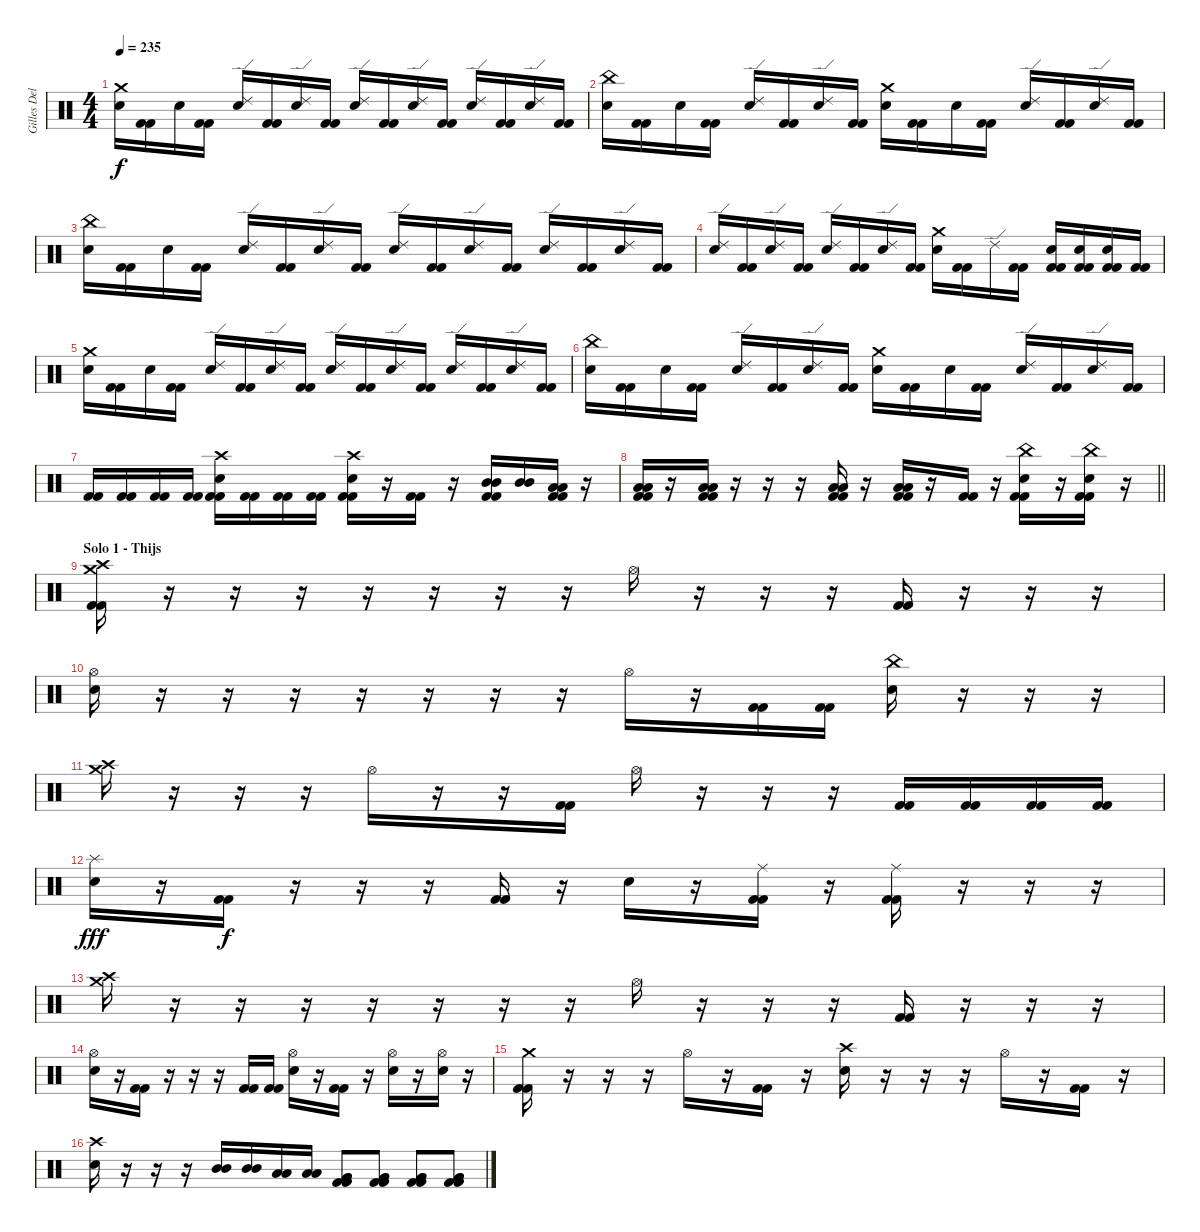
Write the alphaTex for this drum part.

\track ("Gilles Delecroix" "Gilles Del") {instrument percussion}
\staff {score}
\articulation defaults
\ts (4 4)
\tempo 235
\clef neutral
\ks c
("Crash medium (hit)" "Electric Snare (hit)").16{dy f} ("Kick (hit) 2" "Kick (hit) 2").16 "Electric Snare (hit)".16 ("Kick (hit) 2" "Kick (hit) 2").16 ("Ride (edge) 2" "Electric Snare (hit)").16 ("Kick (hit) 2" "Kick (hit) 2").16 ("Ride (edge) 2" "Electric Snare (hit)").16 ("Kick (hit) 2" "Kick (hit) 2").16 ("Ride (edge) 2" "Electric Snare (hit)").16 ("Kick (hit) 2" "Kick (hit) 2").16 ("Ride (edge) 2" "Electric Snare (hit)").16 ("Kick (hit) 2" "Kick (hit) 2").16 ("Ride (edge) 2" "Electric Snare (hit)").16 ("Kick (hit) 2" "Kick (hit) 2").16 ("Ride (edge) 2" "Electric Snare (hit)").16 ("Kick (hit) 2" "Kick (hit) 2").16 |
("China (hit)" "Electric Snare (hit)").16 ("Kick (hit) 2" "Kick (hit) 2").16 "Electric Snare (hit)".16 ("Kick (hit) 2" "Kick (hit) 2").16 ("Ride (edge) 2" "Electric Snare (hit)").16 ("Kick (hit) 2" "Kick (hit) 2").16 ("Ride (edge) 2" "Electric Snare (hit)").16 ("Kick (hit) 2" "Kick (hit) 2").16 ("Crash medium (hit)" "Electric Snare (hit)").16 ("Kick (hit) 2" "Kick (hit) 2").16 "Electric Snare (hit)".16 ("Kick (hit) 2" "Kick (hit) 2").16 ("Ride (edge) 2" "Electric Snare (hit)").16 ("Kick (hit) 2" "Kick (hit) 2").16 ("Ride (edge) 2" "Electric Snare (hit)").16 ("Kick (hit) 2" "Kick (hit) 2").16 |
("China (hit)" "Electric Snare (hit)").16 ("Kick (hit) 2" "Kick (hit) 2").16 "Electric Snare (hit)".16 ("Kick (hit) 2" "Kick (hit) 2").16 ("Ride (edge) 2" "Electric Snare (hit)").16 ("Kick (hit) 2" "Kick (hit) 2").16 ("Ride (edge) 2" "Electric Snare (hit)").16 ("Kick (hit) 2" "Kick (hit) 2").16 ("Ride (edge) 2" "Electric Snare (hit)").16 ("Kick (hit) 2" "Kick (hit) 2").16 ("Ride (edge) 2" "Electric Snare (hit)").16 ("Kick (hit) 2" "Kick (hit) 2").16 ("Ride (edge) 2" "Electric Snare (hit)").16 ("Kick (hit) 2" "Kick (hit) 2").16 ("Ride (edge) 2" "Electric Snare (hit)").16 ("Kick (hit) 2" "Kick (hit) 2").16 |
("Ride (edge) 2" "Electric Snare (hit)").16 ("Kick (hit) 2" "Kick (hit) 2").16 ("Ride (edge) 2" "Electric Snare (hit)").16 ("Kick (hit) 2" "Kick (hit) 2").16 ("Ride (edge) 2" "Electric Snare (hit)").16 ("Kick (hit) 2" "Kick (hit) 2").16 ("Ride (edge) 2" "Electric Snare (hit)").16 ("Kick (hit) 2" "Kick (hit) 2").16 ("Crash medium (hit)" "Electric Snare (hit)").16 ("Kick (hit) 2" "Kick (hit) 2").16 "Ride (edge) 2".16 ("Kick (hit) 2" "Kick (hit) 2").16 ("Electric Snare (hit)" "Kick (hit) 2" "Kick (hit) 2").16 ("Electric Snare (hit)" "Kick (hit) 2" "Kick (hit) 2").16 ("Electric Snare (hit)" "Kick (hit) 2" "Kick (hit) 2").16 ("Kick (hit) 2" "Kick (hit) 2").16 |
("Crash medium (hit)" "Electric Snare (hit)").16 ("Kick (hit) 2" "Kick (hit) 2").16 "Electric Snare (hit)".16 ("Kick (hit) 2" "Kick (hit) 2").16 ("Ride (edge) 2" "Electric Snare (hit)").16 ("Kick (hit) 2" "Kick (hit) 2").16 ("Ride (edge) 2" "Electric Snare (hit)").16 ("Kick (hit) 2" "Kick (hit) 2").16 ("Ride (edge) 2" "Electric Snare (hit)").16 ("Kick (hit) 2" "Kick (hit) 2").16 ("Ride (edge) 2" "Electric Snare (hit)").16 ("Kick (hit) 2" "Kick (hit) 2").16 ("Ride (edge) 2" "Electric Snare (hit)").16 ("Kick (hit) 2" "Kick (hit) 2").16 ("Ride (edge) 2" "Electric Snare (hit)").16 ("Kick (hit) 2" "Kick (hit) 2").16 |
("China (hit)" "Electric Snare (hit)").16 ("Kick (hit) 2" "Kick (hit) 2").16 "Electric Snare (hit)".16 ("Kick (hit) 2" "Kick (hit) 2").16 ("Ride (edge) 2" "Electric Snare (hit)").16 ("Kick (hit) 2" "Kick (hit) 2").16 ("Ride (edge) 2" "Electric Snare (hit)").16 ("Kick (hit) 2" "Kick (hit) 2").16 ("Crash medium (hit)" "Electric Snare (hit)").16 ("Kick (hit) 2" "Kick (hit) 2").16 "Electric Snare (hit)".16 ("Kick (hit) 2" "Kick (hit) 2").16 ("Ride (edge) 2" "Electric Snare (hit)").16 ("Kick (hit) 2" "Kick (hit) 2").16 ("Ride (edge) 2" "Electric Snare (hit)").16 ("Kick (hit) 2" "Kick (hit) 2").16 |
("Kick (hit) 2" "Kick (hit) 2").16 ("Kick (hit) 2" "Kick (hit) 2").16 ("Kick (hit) 2" "Kick (hit) 2").16 ("Kick (hit) 2" "Kick (hit) 2").16 ("Crash high (hit)" "Electric Snare (hit)" "Kick (hit) 2" "Kick (hit) 2").16 ("Kick (hit) 2" "Kick (hit) 2").16 ("Kick (hit) 2" "Kick (hit) 2").16 ("Kick (hit) 2" "Kick (hit) 2").16 ("Crash high (hit)" "Electric Snare (hit)" "Kick (hit) 2" "Kick (hit) 2").16 r.16 ("Kick (hit) 2" "Kick (hit) 2").16 r.16 ("Mid Tom (hit)" "Mid Tom (hit)" "Kick (hit) 2" "Kick (hit) 2").16 ("Mid Tom (hit)" "Mid Tom (hit)").16 ("Low Tom (hit)" "Low Tom (hit)" "Kick (hit) 2" "Kick (hit) 2").16 r.16 |
\barLineRight lightlight
("Low Tom (hit)" "Low Tom (hit)" "Kick (hit) 2" "Kick (hit) 2").16 r.16 ("Low Tom (hit)" "Low Tom (hit)" "Kick (hit) 2" "Kick (hit) 2").16 r.16 r.16 r.16 ("Low Tom (hit)" "Low Tom (hit)" "Kick (hit) 2" "Kick (hit) 2").16 r.16 ("Low Tom (hit)" "Low Tom (hit)" "Kick (hit) 2" "Kick (hit) 2").16 r.16 ("Kick (hit) 2" "Kick (hit) 2").16 r.16 ("China (hit)" "Electric Snare (hit)" "Kick (hit) 2" "Kick (hit) 2").16 r.16 ("China (hit)" "Electric Snare (hit)" "Kick (hit) 2" "Kick (hit) 2").16 r.16 |
\section ("" "Solo 1 - Thijs")
("Crash medium (hit)" "Crash high (hit)" "Kick (hit) 2" "Kick (hit) 2").16 r.16 r.16 r.16 r.16 r.16 r.16 r.16 "Hi-Hat (open)".16 r.16 r.16 r.16 ("Kick (hit) 2" "Kick (hit) 2").16 r.16 r.16 r.16 |
("Electric Snare (hit)" "Hi-Hat (open)").16 r.16 r.16 r.16 r.16 r.16 r.16 r.16 "Hi-Hat (open)".16 r.16 ("Kick (hit) 2" "Kick (hit) 2").16 ("Kick (hit) 2" "Kick (hit) 2").16 ("China (hit)" "Electric Snare (hit)").16 r.16 r.16 r.16 |
("Crash medium (hit)" "Crash high (hit)").16 r.16 r.16 r.16 "Hi-Hat (open)".16 r.16 r.16 ("Kick (hit) 2" "Kick (hit) 2").16 "Hi-Hat (open)".16 r.16 r.16 r.16 ("Kick (hit) 2" "Kick (hit) 2").16 ("Kick (hit) 2" "Kick (hit) 2").16 ("Kick (hit) 2" "Kick (hit) 2").16 ("Kick (hit) 2" "Kick (hit) 2").16 |
("Splash (hit)" "Electric Snare (hit)").16{dy fff} r.16 ("Kick (hit) 2" "Kick (hit) 2").16{dy f} r.16 r.16 r.16 ("Kick (hit) 2" "Kick (hit) 2").16 r.16 "Electric Snare (hit)".16 r.16 ("Ride (middle)" "Kick (hit) 2" "Kick (hit) 2").16 r.16 ("Ride (middle)" "Kick (hit) 2" "Kick (hit) 2").16 r.16 r.16 r.16 |
("Crash medium (hit)" "Crash high (hit)").16 r.16 r.16 r.16 r.16 r.16 r.16 r.16 "Hi-Hat (open)".16 r.16 r.16 r.16 ("Kick (hit) 2" "Kick (hit) 2").16 r.16 r.16 r.16 |
("Hi-Hat (open)" "Electric Snare (hit)").16 r.16 ("Kick (hit) 2" "Kick (hit) 2").16 r.16 r.16 r.16 ("Kick (hit) 2" "Kick (hit) 2").16 ("Kick (hit) 2" "Kick (hit) 2").16 ("Hi-Hat (open)" "Electric Snare (hit)").16 r.16 ("Kick (hit) 2" "Kick (hit) 2").16 r.16 ("Hi-Hat (open)" "Electric Snare (hit)").16 r.16 ("Hi-Hat (open)" "Electric Snare (hit)").16 r.16 |
("Crash medium (hit)" "Kick (hit) 2" "Kick (hit) 2").16 r.16 r.16 r.16 "Hi-Hat (open)".16 r.16 ("Kick (hit) 2" "Kick (hit) 2").16 r.16 ("Crash high (hit)" "Electric Snare (hit)").16 r.16 r.16 r.16 "Hi-Hat (open)".16 r.16 ("Kick (hit) 2" "Kick (hit) 2").16 r.16 |
("Crash high (hit)" "Electric Snare (hit)").16 r.16 r.16 r.16 ("Mid Tom (hit)" "Mid Tom (hit)").16 ("Mid Tom (hit)" "Mid Tom (hit)").16 ("Low Tom (hit)" "Low Tom (hit)").16 ("Low Tom (hit)" "Low Tom (hit)").16 ("Very Low Tom (hit)" "Very Low Tom (hit)" "Kick (hit) 2" "Kick (hit) 2").8 ("Very Low Tom (hit)" "Very Low Tom (hit)" "Kick (hit) 2" "Kick (hit) 2").8 ("Very Low Tom (hit)" "Very Low Tom (hit)" "Kick (hit) 2" "Kick (hit) 2").8 ("Very Low Tom (hit)" "Very Low Tom (hit)" "Kick (hit) 2" "Kick (hit) 2").8
